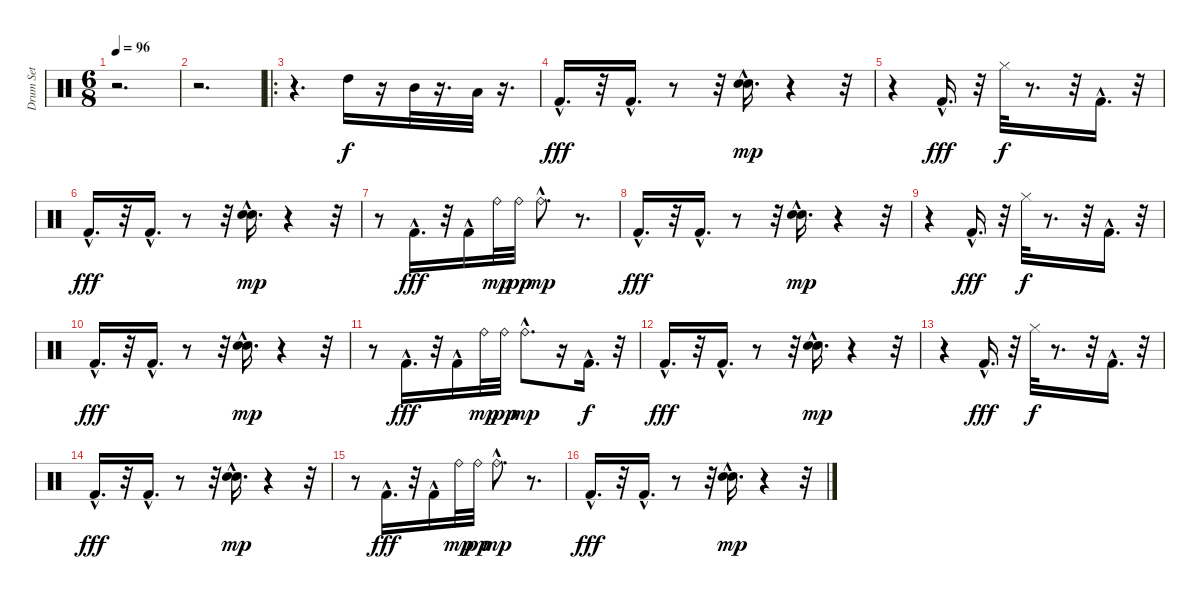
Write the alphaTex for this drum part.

\track ("Drum Set" "Drum Set") {instrument percussion}
\staff {score}
\articulation defaults
\ts (6 8)
\tempo 96
\clef neutral
\ks c
r.2{d dy f} |
r.2{d} |
\ro
r.4{d} "High Tom (hit)".16 r.16 "Mid Tom (hit)".32 r.16{d} "Low Tom (hit)".32 r.16{d} |
"Kick (hit) 2"{hac}.16{d dy fff} r.32 "Kick (hit) 2"{hac}.16{d} r.8 r.32 ("Snare (hit) 2"{hac} "Electric Snare (hit)"{hac}).16{d dy mp} r.4 r.32 |
r.4 "Kick (hit) 2"{hac}.16{d dy fff} r.32 "Hi-Hat (closed)".32{dy f} r.8{d} r.32 "Kick (hit) 2"{hac}.16{d} r.32 |
"Kick (hit) 2"{hac}.16{d dy fff} r.32 "Kick (hit) 2"{hac}.16{d} r.8 r.32 ("Snare (hit) 2"{hac} "Electric Snare (hit)"{hac}).16{d dy mp} r.4 r.32 |
r.8 "Kick (hit) 2"{hac}.16{d dy fff} r.32 "Kick (hit) 2"{hac}.16 "Ride (bell)".32{dy mp} "Ride (bell)".32{dy pp} "Ride (bell)"{hac}.8{d dy mp} r.8{d} |
"Kick (hit) 2"{hac}.16{d dy fff} r.32 "Kick (hit) 2"{hac}.16{d} r.8 r.32 ("Snare (hit) 2"{hac} "Electric Snare (hit)"{hac}).16{d dy mp} r.4 r.32 |
r.4 "Kick (hit) 2"{hac}.16{d dy fff} r.32 "Hi-Hat (closed)".32{dy f} r.8{d} r.32 "Kick (hit) 2"{hac}.16{d} r.32 |
"Kick (hit) 2"{hac}.16{d dy fff} r.32 "Kick (hit) 2"{hac}.16{d} r.8 r.32 ("Snare (hit) 2"{hac} "Electric Snare (hit)"{hac}).16{d dy mp} r.4 r.32 |
r.8 "Kick (hit) 2"{hac}.16{d dy fff} r.32 "Kick (hit) 2"{hac}.16 "Ride (bell)".32{dy mp} "Ride (bell)".32{dy pp} "Ride (bell)"{hac}.8{d dy mp} r.16 "Kick (hit) 2"{hac}.16{d dy f} r.32 |
"Kick (hit) 2"{hac}.16{d dy fff} r.32 "Kick (hit) 2"{hac}.16{d} r.8 r.32 ("Snare (hit) 2"{hac} "Electric Snare (hit)"{hac}).16{d dy mp} r.4 r.32 |
r.4 "Kick (hit) 2"{hac}.16{d dy fff} r.32 "Hi-Hat (closed)".32{dy f} r.8{d} r.32 "Kick (hit) 2"{hac}.16{d} r.32 |
"Kick (hit) 2"{hac}.16{d dy fff} r.32 "Kick (hit) 2"{hac}.16{d} r.8 r.32 ("Snare (hit) 2"{hac} "Electric Snare (hit)"{hac}).16{d dy mp} r.4 r.32 |
r.8 "Kick (hit) 2"{hac}.16{d dy fff} r.32 "Kick (hit) 2"{hac}.16 "Ride (bell)".32{dy mp} "Ride (bell)".32{dy pp} "Ride (bell)"{hac}.8{d dy mp} r.8{d} |
"Kick (hit) 2"{hac}.16{d dy fff} r.32 "Kick (hit) 2"{hac}.16{d} r.8 r.32 ("Snare (hit) 2"{hac} "Electric Snare (hit)"{hac}).16{d dy mp} r.4 r.32
